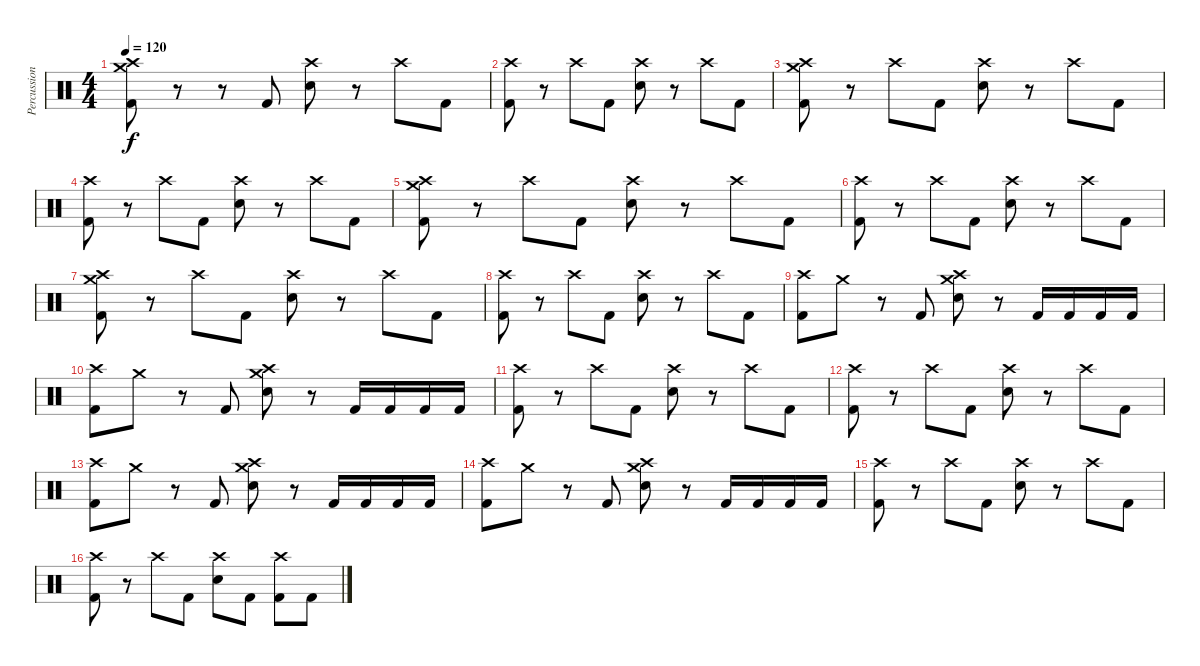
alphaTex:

\track ("Percussion" "Percussion") {instrument percussion}
\staff {score}
\articulation defaults
\ts (4 4)
\tempo 120
\clef neutral
\ks c
("Kick (hit) 2" "Crash medium (hit)" "Crash high (hit)").8{dy f} r.8 r.8 "Kick (hit) 2".8 ("Electric Snare (hit)" "Crash high (hit)").8 r.8 "Crash high (hit)".8 "Kick (hit) 2".8 |
("Kick (hit) 2" "Crash high (hit)").8 r.8 "Crash high (hit)".8 "Kick (hit) 2".8 ("Electric Snare (hit)" "Crash high (hit)").8 r.8 "Crash high (hit)".8 "Kick (hit) 2".8 |
("Kick (hit) 2" "Crash medium (hit)" "Crash high (hit)").8 r.8 "Crash high (hit)".8 "Kick (hit) 2".8 ("Electric Snare (hit)" "Crash high (hit)").8 r.8 "Crash high (hit)".8 "Kick (hit) 2".8 |
("Kick (hit) 2" "Crash high (hit)").8 r.8 "Crash high (hit)".8 "Kick (hit) 2".8 ("Electric Snare (hit)" "Crash high (hit)").8 r.8 "Crash high (hit)".8 "Kick (hit) 2".8 |
("Kick (hit) 2" "Crash medium (hit)" "Crash high (hit)").8 r.8 "Crash high (hit)".8 "Kick (hit) 2".8 ("Electric Snare (hit)" "Crash high (hit)").8 r.8 "Crash high (hit)".8 "Kick (hit) 2".8 |
("Kick (hit) 2" "Crash high (hit)").8 r.8 "Crash high (hit)".8 "Kick (hit) 2".8 ("Electric Snare (hit)" "Crash high (hit)").8 r.8 "Crash high (hit)".8 "Kick (hit) 2".8 |
("Kick (hit) 2" "Crash medium (hit)" "Crash high (hit)").8 r.8 "Crash high (hit)".8 "Kick (hit) 2".8 ("Electric Snare (hit)" "Crash high (hit)").8 r.8 "Crash high (hit)".8 "Kick (hit) 2".8 |
("Kick (hit) 2" "Crash high (hit)").8 r.8 "Crash high (hit)".8 "Kick (hit) 2".8 ("Electric Snare (hit)" "Crash high (hit)").8 r.8 "Crash high (hit)".8 "Kick (hit) 2".8 |
("Kick (hit) 2" "Crash high (hit)").8 "Crash medium (hit)".8 r.8 "Kick (hit) 2".8 ("Electric Snare (hit)" "Crash medium (hit)" "Crash high (hit)").8 r.8 "Kick (hit) 2".16 "Kick (hit) 2".16 "Kick (hit) 2".16 "Kick (hit) 2".16 |
("Kick (hit) 2" "Crash high (hit)").8 "Crash medium (hit)".8 r.8 "Kick (hit) 2".8 ("Electric Snare (hit)" "Crash medium (hit)" "Crash high (hit)").8 r.8 "Kick (hit) 2".16 "Kick (hit) 2".16 "Kick (hit) 2".16 "Kick (hit) 2".16 |
("Kick (hit) 2" "Crash high (hit)").8 r.8 "Crash high (hit)".8 "Kick (hit) 2".8 ("Electric Snare (hit)" "Crash high (hit)").8 r.8 "Crash high (hit)".8 "Kick (hit) 2".8 |
("Kick (hit) 2" "Crash high (hit)").8 r.8 "Crash high (hit)".8 "Kick (hit) 2".8 ("Electric Snare (hit)" "Crash high (hit)").8 r.8 "Crash high (hit)".8 "Kick (hit) 2".8 |
("Kick (hit) 2" "Crash high (hit)").8 "Crash medium (hit)".8 r.8 "Kick (hit) 2".8 ("Electric Snare (hit)" "Crash medium (hit)" "Crash high (hit)").8 r.8 "Kick (hit) 2".16 "Kick (hit) 2".16 "Kick (hit) 2".16 "Kick (hit) 2".16 |
("Kick (hit) 2" "Crash high (hit)").8 "Crash medium (hit)".8 r.8 "Kick (hit) 2".8 ("Electric Snare (hit)" "Crash medium (hit)" "Crash high (hit)").8 r.8 "Kick (hit) 2".16 "Kick (hit) 2".16 "Kick (hit) 2".16 "Kick (hit) 2".16 |
("Kick (hit) 2" "Crash high (hit)").8 r.8 "Crash high (hit)".8 "Kick (hit) 2".8 ("Electric Snare (hit)" "Crash high (hit)").8 r.8 "Crash high (hit)".8 "Kick (hit) 2".8 |
("Kick (hit) 2" "Crash high (hit)").8 r.8 "Crash high (hit)".8 "Kick (hit) 2".8 ("Electric Snare (hit)" "Crash high (hit)").8 "Kick (hit) 2".8 ("Kick (hit) 2" "Crash high (hit)").8 "Kick (hit) 2".8
